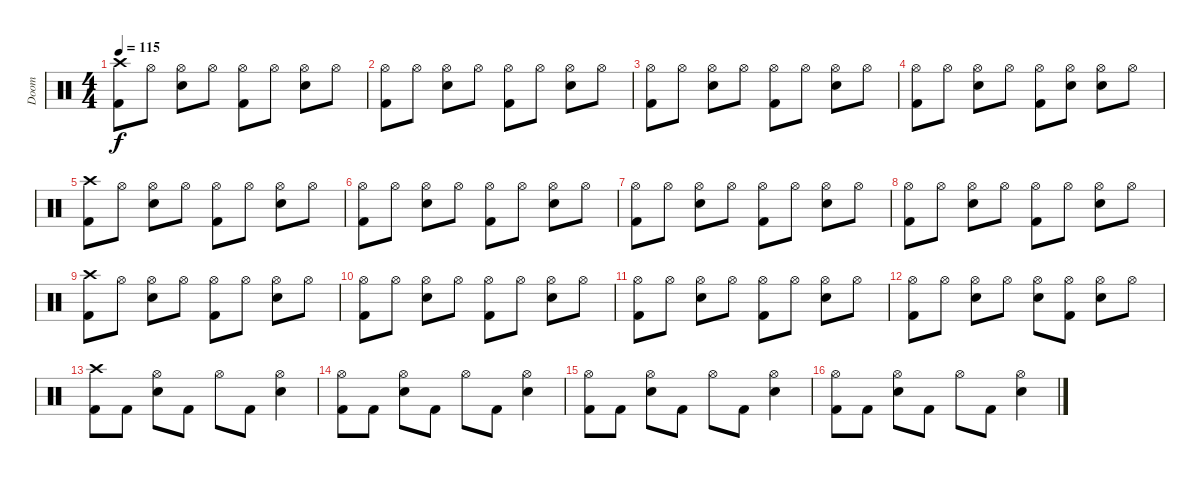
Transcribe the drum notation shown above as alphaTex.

\track ("Doom" "Doom") {instrument percussion}
\staff {score}
\articulation defaults
\ts (4 4)
\tempo 115
\clef neutral
\ks c
("Crash high (hit)" "Kick (hit) 2").8{dy f} "Hi-Hat (open)".8 ("Hi-Hat (open)" "Electric Snare (hit)").8 "Hi-Hat (open)".8 ("Hi-Hat (open)" "Kick (hit) 2").8 "Hi-Hat (open)".8 ("Hi-Hat (open)" "Electric Snare (hit)").8 "Hi-Hat (open)".8 |
("Hi-Hat (open)" "Kick (hit) 2").8 "Hi-Hat (open)".8 ("Hi-Hat (open)" "Electric Snare (hit)").8 "Hi-Hat (open)".8 ("Hi-Hat (open)" "Kick (hit) 2").8 "Hi-Hat (open)".8 ("Hi-Hat (open)" "Electric Snare (hit)").8 "Hi-Hat (open)".8 |
("Hi-Hat (open)" "Kick (hit) 2").8 "Hi-Hat (open)".8 ("Hi-Hat (open)" "Electric Snare (hit)").8 "Hi-Hat (open)".8 ("Hi-Hat (open)" "Kick (hit) 2").8 "Hi-Hat (open)".8 ("Hi-Hat (open)" "Electric Snare (hit)").8 "Hi-Hat (open)".8 |
("Hi-Hat (open)" "Kick (hit) 2").8 "Hi-Hat (open)".8 ("Hi-Hat (open)" "Electric Snare (hit)").8 "Hi-Hat (open)".8 ("Hi-Hat (open)" "Kick (hit) 2").8 ("Hi-Hat (open)" "Electric Snare (hit)").8 ("Hi-Hat (open)" "Electric Snare (hit)").8 "Hi-Hat (open)".8 |
("Crash high (hit)" "Kick (hit) 2").8 "Hi-Hat (open)".8 ("Hi-Hat (open)" "Electric Snare (hit)").8 "Hi-Hat (open)".8 ("Hi-Hat (open)" "Kick (hit) 2").8 "Hi-Hat (open)".8 ("Hi-Hat (open)" "Electric Snare (hit)").8 "Hi-Hat (open)".8 |
("Hi-Hat (open)" "Kick (hit) 2").8 "Hi-Hat (open)".8 ("Hi-Hat (open)" "Electric Snare (hit)").8 "Hi-Hat (open)".8 ("Hi-Hat (open)" "Kick (hit) 2").8 "Hi-Hat (open)".8 ("Hi-Hat (open)" "Electric Snare (hit)").8 "Hi-Hat (open)".8 |
("Hi-Hat (open)" "Kick (hit) 2").8 "Hi-Hat (open)".8 ("Hi-Hat (open)" "Electric Snare (hit)").8 "Hi-Hat (open)".8 ("Hi-Hat (open)" "Kick (hit) 2").8 "Hi-Hat (open)".8 ("Hi-Hat (open)" "Electric Snare (hit)").8 "Hi-Hat (open)".8 |
("Hi-Hat (open)" "Kick (hit) 2").8 "Hi-Hat (open)".8 ("Hi-Hat (open)" "Electric Snare (hit)").8 "Hi-Hat (open)".8 ("Hi-Hat (open)" "Kick (hit) 2").8 "Hi-Hat (open)".8 ("Hi-Hat (open)" "Electric Snare (hit)").8 "Hi-Hat (open)".8 |
("Crash high (hit)" "Kick (hit) 2").8 "Hi-Hat (open)".8 ("Hi-Hat (open)" "Electric Snare (hit)").8 "Hi-Hat (open)".8 ("Hi-Hat (open)" "Kick (hit) 2").8 "Hi-Hat (open)".8 ("Hi-Hat (open)" "Electric Snare (hit)").8 "Hi-Hat (open)".8 |
("Hi-Hat (open)" "Kick (hit) 2").8 "Hi-Hat (open)".8 ("Hi-Hat (open)" "Electric Snare (hit)").8 "Hi-Hat (open)".8 ("Hi-Hat (open)" "Kick (hit) 2").8 "Hi-Hat (open)".8 ("Hi-Hat (open)" "Electric Snare (hit)").8 "Hi-Hat (open)".8 |
("Hi-Hat (open)" "Kick (hit) 2").8 "Hi-Hat (open)".8 ("Hi-Hat (open)" "Electric Snare (hit)").8 "Hi-Hat (open)".8 ("Hi-Hat (open)" "Kick (hit) 2").8 "Hi-Hat (open)".8 ("Hi-Hat (open)" "Electric Snare (hit)").8 "Hi-Hat (open)".8 |
("Hi-Hat (open)" "Kick (hit) 2").8 "Hi-Hat (open)".8 ("Hi-Hat (open)" "Electric Snare (hit)").8 "Hi-Hat (open)".8 ("Hi-Hat (open)" "Electric Snare (hit)").8 ("Hi-Hat (open)" "Kick (hit) 2").8 ("Hi-Hat (open)" "Electric Snare (hit)").8 "Hi-Hat (open)".8 |
("Crash high (hit)" "Kick (hit) 2").8 "Kick (hit) 2".8 ("Hi-Hat (open)" "Electric Snare (hit)").8 "Kick (hit) 2".8 "Hi-Hat (open)".8 "Kick (hit) 2".8 ("Hi-Hat (open)" "Electric Snare (hit)").4 |
("Hi-Hat (open)" "Kick (hit) 2").8 "Kick (hit) 2".8 ("Hi-Hat (open)" "Electric Snare (hit)").8 "Kick (hit) 2".8 "Hi-Hat (open)".8 "Kick (hit) 2".8 ("Hi-Hat (open)" "Electric Snare (hit)").4 |
("Hi-Hat (open)" "Kick (hit) 2").8 "Kick (hit) 2".8 ("Hi-Hat (open)" "Electric Snare (hit)").8 "Kick (hit) 2".8 "Hi-Hat (open)".8 "Kick (hit) 2".8 ("Hi-Hat (open)" "Electric Snare (hit)").4 |
("Hi-Hat (open)" "Kick (hit) 2").8 "Kick (hit) 2".8 ("Hi-Hat (open)" "Electric Snare (hit)").8 "Kick (hit) 2".8 "Hi-Hat (open)".8 "Kick (hit) 2".8 ("Hi-Hat (open)" "Electric Snare (hit)").4
